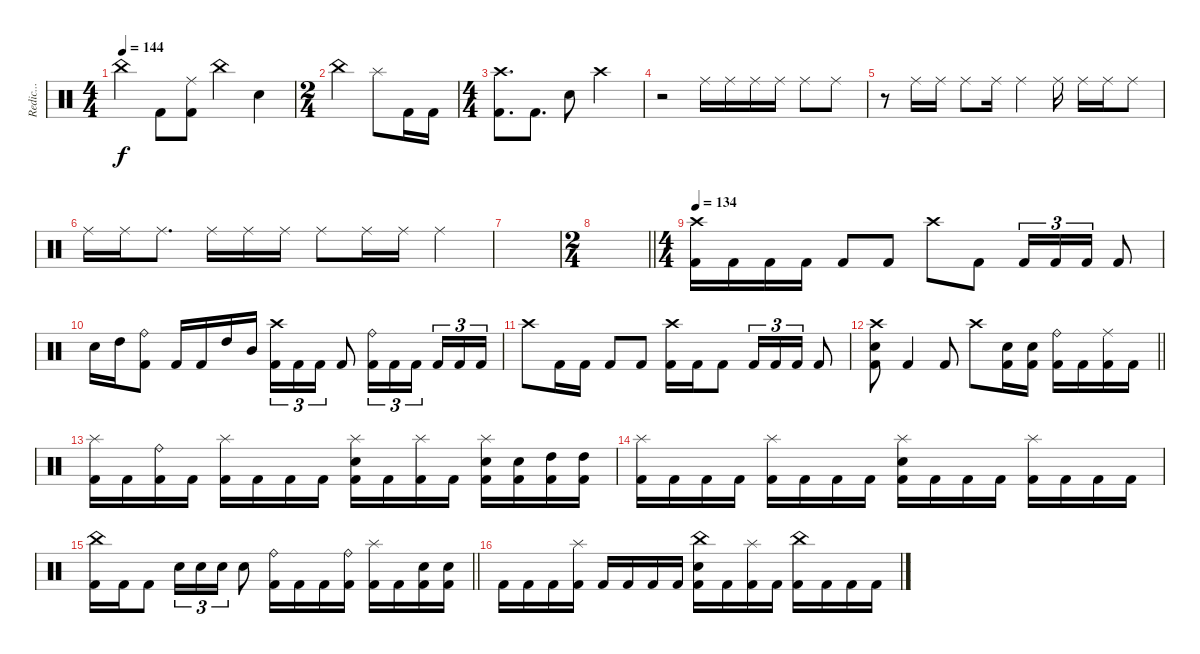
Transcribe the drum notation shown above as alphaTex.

\track ("Redic..." "Redic...") {instrument percussion}
\staff {score}
\articulation defaults
\ts (4 4)
\tempo 144
\clef neutral
\ks c "China (hit)".4{dy f} "Kick (hit) 2".8
("Ride (middle)" "Kick (hit) 2").8 "China (hit)".4 "Electric Snare (hit)".4 |
\ts (2 4)
"China (hit)".4 "Splash (hit)".8 "Kick (hit) 2".16 "Kick (hit) 2".16 |
\ts (4 4)
("Crash high (hit)" "Kick (hit) 2").8{d} "Kick (hit) 2".8{d} "Electric Snare (hit)".8 "Crash high (hit)".2 |
r.2 "Ride (middle)".16 "Ride (middle)".16 "Ride (middle)".16 "Ride (middle)".16 "Ride (middle)".8 "Ride (middle)".8 |
r.8 "Ride (middle)".16 "Ride (middle)".16 "Ride (middle)".8 "Ride (middle)".16 "Ride (middle)".4 "Ride (middle)".16 "Ride (middle)".16 "Ride (middle)".16 "Ride (middle)".8 |
"Ride (middle)".16 "Ride (middle)".16 "Ride (middle)".8{d} "Ride (middle)".16 "Ride (middle)".16 "Ride (middle)".16 "Ride (middle)".8 "Ride (middle)".16 "Ride (middle)".16 "Ride (middle)".4 |
|
\ts (2 4)
\barLineRight lightlight
|
\ts (4 4)
\section ("" "")
\tempo 134
("Crash high (hit)" "Kick (hit) 2").16 "Kick (hit) 2".16 "Kick (hit) 2".16 "Kick (hit) 2".16 "Kick (hit) 2".8 "Kick (hit) 2".8 "Crash high (hit)".8 "Kick (hit) 2".8 "Kick (hit) 2".16{tu (3 2)} "Kick (hit) 2".16{tu (3 2)} "Kick (hit) 2".16{tu (3 2)} "Kick (hit) 2".8 |
"Electric Snare (hit)".16 "High Tom (hit)".16 ("Ride (bell)" "Kick (hit) 2").8 "Kick (hit) 2".16 "Kick (hit) 2".16 "High Tom (hit)".16 "Mid Tom (hit)".16 ("Crash high (hit)" "Kick (hit) 2").16{tu (3 2)} "Kick (hit) 2".16{tu (3 2)} "Kick (hit) 2".16{tu (3 2)} "Kick (hit) 2".8 ("Ride (bell)" "Kick (hit) 2").16{tu (3 2)} "Kick (hit) 2".16{tu (3 2)} "Kick (hit) 2".16{tu (3 2) beam splitsecondary} "Kick (hit) 2".16{tu (3 2)} "Kick (hit) 2".16{tu (3 2)} "Kick (hit) 2".16{tu (3 2)} |
"Crash high (hit)".8 "Kick (hit) 2".16 "Kick (hit) 2".16 "Kick (hit) 2".8 "Kick (hit) 2".8 ("Crash high (hit)" "Kick (hit) 2").16 "Kick (hit) 2".16 "Kick (hit) 2".8 "Kick (hit) 2".16{tu (3 2)} "Kick (hit) 2".16{tu (3 2)} "Kick (hit) 2".16{tu (3 2)} "Kick (hit) 2".8 |
\barLineRight lightlight
("Crash high (hit)" "Electric Snare (hit)" "Kick (hit) 2").8 "Kick (hit) 2".4 "Kick (hit) 2".8 "Crash high (hit)".8 ("Electric Snare (hit)" "Kick (hit) 2").16 ("Electric Snare (hit)" "Kick (hit) 2").16 ("Ride (bell)" "Kick (hit) 2").16 "Kick (hit) 2".16 ("Ride (middle)" "Kick (hit) 2").16 "Kick (hit) 2".16 |
\section ("" "")
("Splash (hit)" "Kick (hit) 2").16 "Kick (hit) 2".16 ("Ride (bell)" "Kick (hit) 2").16 "Kick (hit) 2".16 ("Splash (hit)" "Kick (hit) 2").16 "Kick (hit) 2".16 "Kick (hit) 2".16 "Kick (hit) 2".16 ("Splash (hit)" "Electric Snare (hit)" "Kick (hit) 2").16 "Kick (hit) 2".16 ("Splash (hit)" "Kick (hit) 2").16 "Kick (hit) 2".16 ("Splash (hit)" "Electric Snare (hit)" "Kick (hit) 2").16 ("Electric Snare (hit)" "Kick (hit) 2").16 ("High Tom (hit)" "Kick (hit) 2").16 ("High Tom (hit)" "Kick (hit) 2").16 |
("Splash (hit)" "Kick (hit) 2").16 "Kick (hit) 2".16 "Kick (hit) 2".16 "Kick (hit) 2".16 ("Splash (hit)" "Kick (hit) 2").16 "Kick (hit) 2".16 "Kick (hit) 2".16 "Kick (hit) 2".16 ("Splash (hit)" "Electric Snare (hit)" "Kick (hit) 2").16 "Kick (hit) 2".16 "Kick (hit) 2".16 "Kick (hit) 2".16 ("Splash (hit)" "Kick (hit) 2").16 "Kick (hit) 2".16 "Kick (hit) 2".16 "Kick (hit) 2".16 |
\barLineRight lightlight
("China (hit)" "Kick (hit) 2").16 "Kick (hit) 2".16 "Kick (hit) 2".8 "Electric Snare (hit)".16{tu (3 2)} "Electric Snare (hit)".16{tu (3 2)} "Electric Snare (hit)".16{tu (3 2)} "Electric Snare (hit)".8 ("Ride (bell)" "Kick (hit) 2").16 "Kick (hit) 2".16 "Kick (hit) 2".16 ("Ride (bell)" "Kick (hit) 2").16 ("Splash (hit)" "Kick (hit) 2").16 "Kick (hit) 2".16 ("Electric Snare (hit)" "Kick (hit) 2").16 ("Electric Snare (hit)" "Kick (hit) 2").16 |
\section ("" "")
"Kick (hit) 2".16 "Kick (hit) 2".16 "Kick (hit) 2".16 ("Splash (hit)" "Kick (hit) 2").16 "Kick (hit) 2".16 "Kick (hit) 2".16 "Kick (hit) 2".16 "Kick (hit) 2".16 ("China (hit)" "Electric Snare (hit)" "Kick (hit) 2").16 "Kick (hit) 2".16 ("Splash (hit)" "Kick (hit) 2").16 "Kick (hit) 2".16 ("China (hit)" "Kick (hit) 2").16 "Kick (hit) 2".16 "Kick (hit) 2".16 "Kick (hit) 2".16
